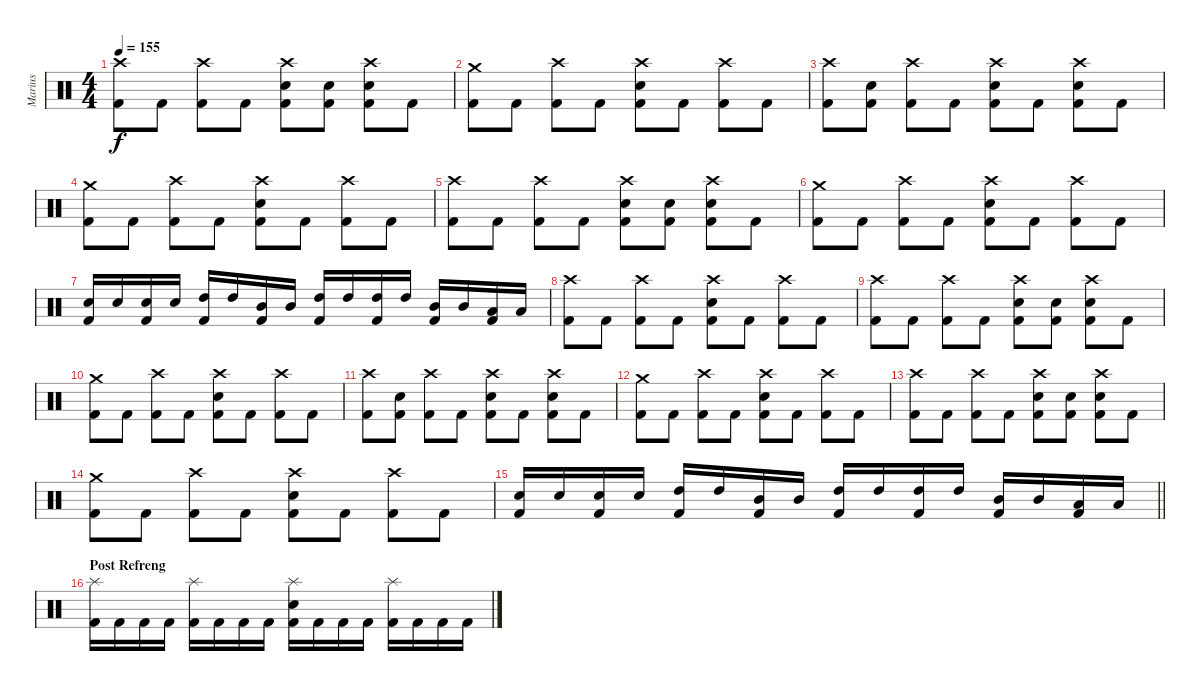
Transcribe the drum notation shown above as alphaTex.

\track ("Marius" "Marius") {instrument percussion}
\staff {score}
\articulation defaults
\ts (4 4)
\tempo 155
\clef neutral
\ks c
("Crash high (hit)" "Kick (hit) 2").8{dy f} "Kick (hit) 2".8 ("Crash high (hit)" "Kick (hit) 2").8 "Kick (hit) 2".8 ("Crash high (hit)" "Snare (hit) 2" "Kick (hit) 2").8 ("Snare (hit) 2" "Kick (hit) 2").8 ("Crash high (hit)" "Snare (hit) 2" "Kick (hit) 2").8 "Kick (hit) 2".8 |
("Crash medium (hit)" "Kick (hit) 2").8 "Kick (hit) 2".8 ("Crash high (hit)" "Kick (hit) 2").8 "Kick (hit) 2".8 ("Crash high (hit)" "Snare (hit) 2" "Kick (hit) 2").8 "Kick (hit) 2".8 ("Crash high (hit)" "Kick (hit) 2").8 "Kick (hit) 2".8 |
("Crash high (hit)" "Kick (hit) 2").8 ("Snare (hit) 2" "Kick (hit) 2").8 ("Crash high (hit)" "Kick (hit) 2").8 "Kick (hit) 2".8 ("Crash high (hit)" "Snare (hit) 2" "Kick (hit) 2").8 "Kick (hit) 2".8 ("Crash high (hit)" "Snare (hit) 2" "Kick (hit) 2").8 "Kick (hit) 2".8 |
("Crash medium (hit)" "Kick (hit) 2").8 "Kick (hit) 2".8 ("Crash high (hit)" "Kick (hit) 2").8 "Kick (hit) 2".8 ("Crash high (hit)" "Snare (hit) 2" "Kick (hit) 2").8 "Kick (hit) 2".8 ("Crash high (hit)" "Kick (hit) 2").8 "Kick (hit) 2".8 |
("Crash high (hit)" "Kick (hit) 2").8 "Kick (hit) 2".8 ("Crash high (hit)" "Kick (hit) 2").8 "Kick (hit) 2".8 ("Crash high (hit)" "Snare (hit) 2" "Kick (hit) 2").8 ("Snare (hit) 2" "Kick (hit) 2").8 ("Crash high (hit)" "Snare (hit) 2" "Kick (hit) 2").8 "Kick (hit) 2".8 |
("Crash medium (hit)" "Kick (hit) 2").8 "Kick (hit) 2".8 ("Crash high (hit)" "Kick (hit) 2").8 "Kick (hit) 2".8 ("Crash high (hit)" "Snare (hit) 2" "Kick (hit) 2").8 "Kick (hit) 2".8 ("Crash high (hit)" "Kick (hit) 2").8 "Kick (hit) 2".8 |
("Snare (hit) 2" "Kick (hit) 2").16 "Snare (hit) 2".16 ("Snare (hit) 2" "Kick (hit) 2").16 "Snare (hit) 2".16 ("High Tom (hit)" "Kick (hit) 2").16 "High Tom (hit)".16 ("Mid Tom (hit)" "Kick (hit) 2").16 "Mid Tom (hit)".16 ("High Tom (hit)" "Kick (hit) 2").16 "High Tom (hit)".16 ("High Tom (hit)" "Kick (hit) 2").16 "High Tom (hit)".16 ("Mid Tom (hit)" "Kick (hit) 2").16 "Mid Tom (hit)".16 ("Low Tom (hit)" "Kick (hit) 2").16 "Low Tom (hit)".16 |
("Crash high (hit)" "Kick (hit) 2").8 "Kick (hit) 2".8 ("Crash high (hit)" "Kick (hit) 2").8 "Kick (hit) 2".8 ("Crash high (hit)" "Snare (hit) 2" "Kick (hit) 2").8 "Kick (hit) 2".8 ("Crash high (hit)" "Kick (hit) 2").8 "Kick (hit) 2".8 |
("Crash high (hit)" "Kick (hit) 2").8 "Kick (hit) 2".8 ("Crash high (hit)" "Kick (hit) 2").8 "Kick (hit) 2".8 ("Crash high (hit)" "Snare (hit) 2" "Kick (hit) 2").8 ("Snare (hit) 2" "Kick (hit) 2").8 ("Crash high (hit)" "Snare (hit) 2" "Kick (hit) 2").8 "Kick (hit) 2".8 |
("Crash medium (hit)" "Kick (hit) 2").8 "Kick (hit) 2".8 ("Crash high (hit)" "Kick (hit) 2").8 "Kick (hit) 2".8 ("Crash high (hit)" "Snare (hit) 2" "Kick (hit) 2").8 "Kick (hit) 2".8 ("Crash high (hit)" "Kick (hit) 2").8 "Kick (hit) 2".8 |
("Crash high (hit)" "Kick (hit) 2").8 ("Snare (hit) 2" "Kick (hit) 2").8 ("Crash high (hit)" "Kick (hit) 2").8 "Kick (hit) 2".8 ("Crash high (hit)" "Snare (hit) 2" "Kick (hit) 2").8 "Kick (hit) 2".8 ("Crash high (hit)" "Snare (hit) 2" "Kick (hit) 2").8 "Kick (hit) 2".8 |
("Crash medium (hit)" "Kick (hit) 2").8 "Kick (hit) 2".8 ("Crash high (hit)" "Kick (hit) 2").8 "Kick (hit) 2".8 ("Crash high (hit)" "Snare (hit) 2" "Kick (hit) 2").8 "Kick (hit) 2".8 ("Crash high (hit)" "Kick (hit) 2").8 "Kick (hit) 2".8 |
("Crash high (hit)" "Kick (hit) 2").8 "Kick (hit) 2".8 ("Crash high (hit)" "Kick (hit) 2").8 "Kick (hit) 2".8 ("Crash high (hit)" "Snare (hit) 2" "Kick (hit) 2").8 ("Snare (hit) 2" "Kick (hit) 2").8 ("Crash high (hit)" "Snare (hit) 2" "Kick (hit) 2").8 "Kick (hit) 2".8 |
("Crash medium (hit)" "Kick (hit) 2").8 "Kick (hit) 2".8 ("Crash high (hit)" "Kick (hit) 2").8 "Kick (hit) 2".8 ("Crash high (hit)" "Snare (hit) 2" "Kick (hit) 2").8 "Kick (hit) 2".8 ("Crash high (hit)" "Kick (hit) 2").8 "Kick (hit) 2".8 |
\barLineRight lightlight
("Snare (hit) 2" "Kick (hit) 2").16 "Snare (hit) 2".16 ("Snare (hit) 2" "Kick (hit) 2").16 "Snare (hit) 2".16 ("High Tom (hit)" "Kick (hit) 2").16 "High Tom (hit)".16 ("Mid Tom (hit)" "Kick (hit) 2").16 "Mid Tom (hit)".16 ("High Tom (hit)" "Kick (hit) 2").16 "High Tom (hit)".16 ("High Tom (hit)" "Kick (hit) 2").16 "High Tom (hit)".16 ("Mid Tom (hit)" "Kick (hit) 2").16 "Mid Tom (hit)".16 ("Low Tom (hit)" "Kick (hit) 2").16 "Low Tom (hit)".16 |
\section ("" "Post Refreng")
("Splash (hit)" "Kick (hit) 2").16 "Kick (hit) 2".16 "Kick (hit) 2".16 "Kick (hit) 2".16 ("Splash (hit)" "Kick (hit) 2").16 "Kick (hit) 2".16 "Kick (hit) 2".16 "Kick (hit) 2".16 ("Splash (hit)" "Snare (hit) 2" "Kick (hit) 2").16 "Kick (hit) 2".16 "Kick (hit) 2".16 "Kick (hit) 2".16 ("Splash (hit)" "Kick (hit) 2").16 "Kick (hit) 2".16 "Kick (hit) 2".16 "Kick (hit) 2".16
